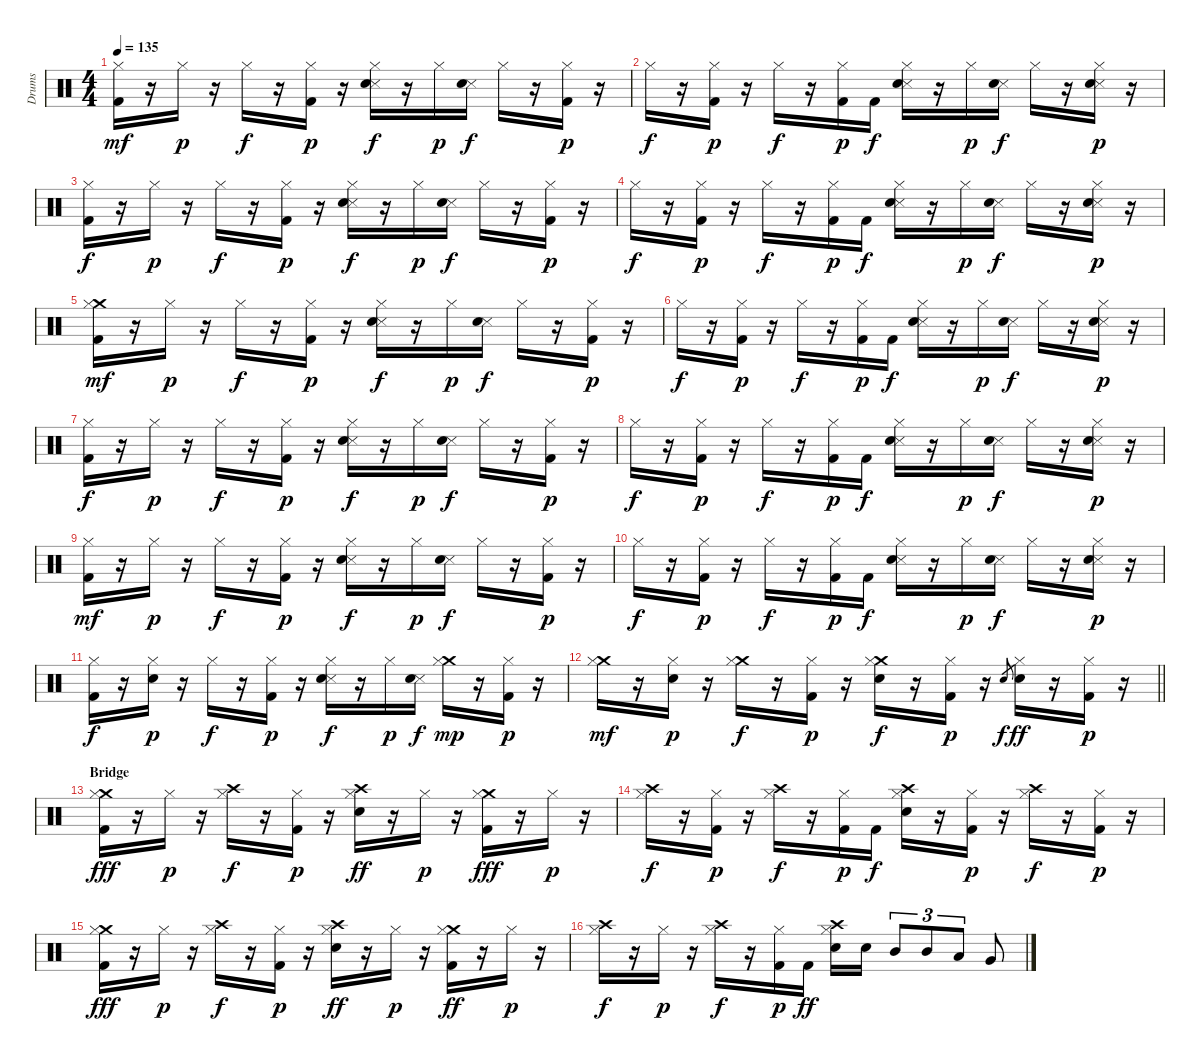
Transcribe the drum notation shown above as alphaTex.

\track ("Drums" "Drums") {instrument percussion}
\staff {score}
\articulation defaults
\ts (4 4)
\tempo 135
\clef neutral
\ks c
("Kick (hit) 2" "Hi-Hat (closed)").16{dy mf} r.16 "Hi-Hat (closed)".16{dy p} r.16 "Hi-Hat (closed)".16{dy f} r.16 ("Kick (hit) 2" "Hi-Hat (closed)").16{dy p} r.16 ("Snare (side stick) 3" "Electric Snare (hit)" "Hi-Hat (closed)").16{dy f} r.16 "Hi-Hat (closed)".16{dy p} ("Snare (side stick) 3" "Electric Snare (hit)").16{dy f} "Hi-Hat (closed)".16 r.16 ("Kick (hit) 2" "Hi-Hat (closed)").16{dy p} r.16 |
"Hi-Hat (closed)".16{dy f} r.16 ("Kick (hit) 2" "Hi-Hat (closed)").16{dy p} r.16 "Hi-Hat (closed)".16{dy f} r.16 ("Kick (hit) 2" "Hi-Hat (closed)").16{dy p} "Kick (hit) 2".16{dy f} ("Snare (side stick) 3" "Electric Snare (hit)" "Hi-Hat (closed)").16 r.16 "Hi-Hat (closed)".16{dy p} ("Snare (side stick) 3" "Electric Snare (hit)").16{dy f} "Hi-Hat (closed)".16 r.16 ("Snare (side stick) 3" "Electric Snare (hit)" "Hi-Hat (closed)").16{dy p} r.16 |
("Kick (hit) 2" "Hi-Hat (closed)").16{dy f} r.16 "Hi-Hat (closed)".16{dy p} r.16 "Hi-Hat (closed)".16{dy f} r.16 ("Kick (hit) 2" "Hi-Hat (closed)").16{dy p} r.16 ("Snare (side stick) 3" "Electric Snare (hit)" "Hi-Hat (closed)").16{dy f} r.16 "Hi-Hat (closed)".16{dy p} ("Snare (side stick) 3" "Electric Snare (hit)").16{dy f} "Hi-Hat (closed)".16 r.16 ("Kick (hit) 2" "Hi-Hat (closed)").16{dy p} r.16 |
"Hi-Hat (closed)".16{dy f} r.16 ("Kick (hit) 2" "Hi-Hat (closed)").16{dy p} r.16 "Hi-Hat (closed)".16{dy f} r.16 ("Kick (hit) 2" "Hi-Hat (closed)").16{dy p} "Kick (hit) 2".16{dy f} ("Snare (side stick) 3" "Electric Snare (hit)" "Hi-Hat (closed)").16 r.16 "Hi-Hat (closed)".16{dy p} ("Snare (side stick) 3" "Electric Snare (hit)").16{dy f} "Hi-Hat (closed)".16 r.16 ("Snare (side stick) 3" "Electric Snare (hit)" "Hi-Hat (closed)").16{dy p} r.16 |
("Crash medium (hit)" "Kick (hit) 2" "Hi-Hat (closed)").16{dy mf} r.16 "Hi-Hat (closed)".16{dy p} r.16 "Hi-Hat (closed)".16{dy f} r.16 ("Kick (hit) 2" "Hi-Hat (closed)").16{dy p} r.16 ("Snare (side stick) 3" "Electric Snare (hit)" "Hi-Hat (closed)").16{dy f} r.16 "Hi-Hat (closed)".16{dy p} ("Snare (side stick) 3" "Electric Snare (hit)").16{dy f} "Hi-Hat (closed)".16 r.16 ("Kick (hit) 2" "Hi-Hat (closed)").16{dy p} r.16 |
"Hi-Hat (closed)".16{dy f} r.16 ("Kick (hit) 2" "Hi-Hat (closed)").16{dy p} r.16 "Hi-Hat (closed)".16{dy f} r.16 ("Kick (hit) 2" "Hi-Hat (closed)").16{dy p} "Kick (hit) 2".16{dy f} ("Snare (side stick) 3" "Electric Snare (hit)" "Hi-Hat (closed)").16 r.16 "Hi-Hat (closed)".16{dy p} ("Snare (side stick) 3" "Electric Snare (hit)").16{dy f} "Hi-Hat (closed)".16 r.16 ("Snare (side stick) 3" "Electric Snare (hit)" "Hi-Hat (closed)").16{dy p} r.16 |
("Kick (hit) 2" "Hi-Hat (closed)").16{dy f} r.16 "Hi-Hat (closed)".16{dy p} r.16 "Hi-Hat (closed)".16{dy f} r.16 ("Kick (hit) 2" "Hi-Hat (closed)").16{dy p} r.16 ("Snare (side stick) 3" "Electric Snare (hit)" "Hi-Hat (closed)").16{dy f} r.16 "Hi-Hat (closed)".16{dy p} ("Snare (side stick) 3" "Electric Snare (hit)").16{dy f} "Hi-Hat (closed)".16 r.16 ("Kick (hit) 2" "Hi-Hat (closed)").16{dy p} r.16 |
"Hi-Hat (closed)".16{dy f} r.16 ("Kick (hit) 2" "Hi-Hat (closed)").16{dy p} r.16 "Hi-Hat (closed)".16{dy f} r.16 ("Kick (hit) 2" "Hi-Hat (closed)").16{dy p} "Kick (hit) 2".16{dy f} ("Snare (side stick) 3" "Electric Snare (hit)" "Hi-Hat (closed)").16 r.16 "Hi-Hat (closed)".16{dy p} ("Snare (side stick) 3" "Electric Snare (hit)").16{dy f} "Hi-Hat (closed)".16 r.16 ("Snare (side stick) 3" "Electric Snare (hit)" "Hi-Hat (closed)").16{dy p} r.16 |
("Kick (hit) 2" "Hi-Hat (closed)").16{dy mf} r.16 "Hi-Hat (closed)".16{dy p} r.16 "Hi-Hat (closed)".16{dy f} r.16 ("Kick (hit) 2" "Hi-Hat (closed)").16{dy p} r.16 ("Snare (side stick) 3" "Electric Snare (hit)" "Hi-Hat (closed)").16{dy f} r.16 "Hi-Hat (closed)".16{dy p} ("Snare (side stick) 3" "Electric Snare (hit)").16{dy f} "Hi-Hat (closed)".16 r.16 ("Kick (hit) 2" "Hi-Hat (closed)").16{dy p} r.16 |
"Hi-Hat (closed)".16{dy f} r.16 ("Kick (hit) 2" "Hi-Hat (closed)").16{dy p} r.16 "Hi-Hat (closed)".16{dy f} r.16 ("Kick (hit) 2" "Hi-Hat (closed)").16{dy p} "Kick (hit) 2".16{dy f} ("Snare (side stick) 3" "Electric Snare (hit)" "Hi-Hat (closed)").16 r.16 "Hi-Hat (closed)".16{dy p} ("Snare (side stick) 3" "Electric Snare (hit)").16{dy f} "Hi-Hat (closed)".16 r.16 ("Snare (side stick) 3" "Electric Snare (hit)" "Hi-Hat (closed)").16{dy p} r.16 |
("Kick (hit) 2" "Hi-Hat (closed)").16{dy f} r.16 ("Electric Snare (hit)" "Hi-Hat (closed)").16{dy p} r.16 "Hi-Hat (closed)".16{dy f} r.16 ("Kick (hit) 2" "Hi-Hat (closed)").16{dy p} r.16 ("Snare (side stick) 3" "Electric Snare (hit)" "Hi-Hat (closed)").16{dy f} r.16 "Hi-Hat (closed)".16{dy p} ("Snare (side stick) 3" "Electric Snare (hit)").16{dy f} ("Crash medium (hit)" "Hi-Hat (closed)").16{dy mp} r.16 ("Kick (hit) 2" "Hi-Hat (closed)").16{dy p} r.16 |
\barLineRight lightlight
("Crash medium (hit)" "Hi-Hat (closed)").16{dy mf} r.16 ("Electric Snare (hit)" "Hi-Hat (closed)").16{dy p} r.16 ("Crash medium (hit)" "Hi-Hat (closed)").16{dy f} r.16 ("Kick (hit) 2" "Hi-Hat (closed)").16{dy p} r.16 ("Crash medium (hit)" "Electric Snare (hit)" "Hi-Hat (closed)").16{dy f} r.16 ("Kick (hit) 2" "Hi-Hat (closed)").16{dy p} r.16 "Electric Snare (hit)".8{gr dy f} ("Electric Snare (hit)" "Hi-Hat (closed)").16{dy ff} r.16 ("Kick (hit) 2" "Hi-Hat (closed)").16{dy p} r.16 |
\section ("" "Bridge")
("Crash medium (hit)" "Kick (hit) 2" "Hi-Hat (closed)").16{dy fff} r.16 "Hi-Hat (closed)".16{dy p} r.16 ("Crash high (hit)" "Hi-Hat (closed)").16{dy f} r.16 ("Kick (hit) 2" "Hi-Hat (closed)").16{dy p} r.16 ("Crash high (hit)" "Electric Snare (hit)" "Hi-Hat (closed)").16{dy ff} r.16 "Hi-Hat (closed)".16{dy p} r.16 ("Crash medium (hit)" "Kick (hit) 2" "Hi-Hat (closed)").16{dy fff} r.16 "Hi-Hat (closed)".16{dy p} r.16 |
("Crash high (hit)" "Hi-Hat (closed)").16{dy f} r.16 ("Kick (hit) 2" "Hi-Hat (closed)").16{dy p} r.16 ("Crash high (hit)" "Hi-Hat (closed)").16{dy f} r.16 ("Kick (hit) 2" "Hi-Hat (closed)").16{dy p} "Kick (hit) 2".16{dy f} ("Crash high (hit)" "Electric Snare (hit)" "Hi-Hat (closed)").16 r.16 ("Kick (hit) 2" "Hi-Hat (closed)").16{dy p} r.16 ("Crash high (hit)" "Hi-Hat (closed)").16{dy f} r.16 ("Kick (hit) 2" "Hi-Hat (closed)").16{dy p} r.16 |
("Crash medium (hit)" "Kick (hit) 2" "Hi-Hat (closed)").16{dy fff} r.16 "Hi-Hat (closed)".16{dy p} r.16 ("Crash high (hit)" "Hi-Hat (closed)").16{dy f} r.16 ("Kick (hit) 2" "Hi-Hat (closed)").16{dy p} r.16 ("Crash high (hit)" "Electric Snare (hit)" "Hi-Hat (closed)").16{dy ff} r.16 "Hi-Hat (closed)".16{dy p} r.16 ("Crash medium (hit)" "Kick (hit) 2" "Hi-Hat (closed)").16{dy ff} r.16 "Hi-Hat (closed)".16{dy p} r.16 |
("Crash high (hit)" "Hi-Hat (closed)").16{dy f} r.16 "Hi-Hat (closed)".16{dy p} r.16 ("Crash high (hit)" "Hi-Hat (closed)").16{dy f} r.16 ("Kick (hit) 2" "Hi-Hat (closed)").16{dy p} "Kick (hit) 2".16{dy ff} ("Crash high (hit)" "Electric Snare (hit)" "Hi-Hat (closed)").16 "Electric Snare (hit)".16 "Mid Tom (hit)".8{tu (3 2)} "Mid Tom (hit)".8{tu (3 2)} "Low Tom (hit)".8{tu (3 2)} "Very Low Tom (hit)".8
